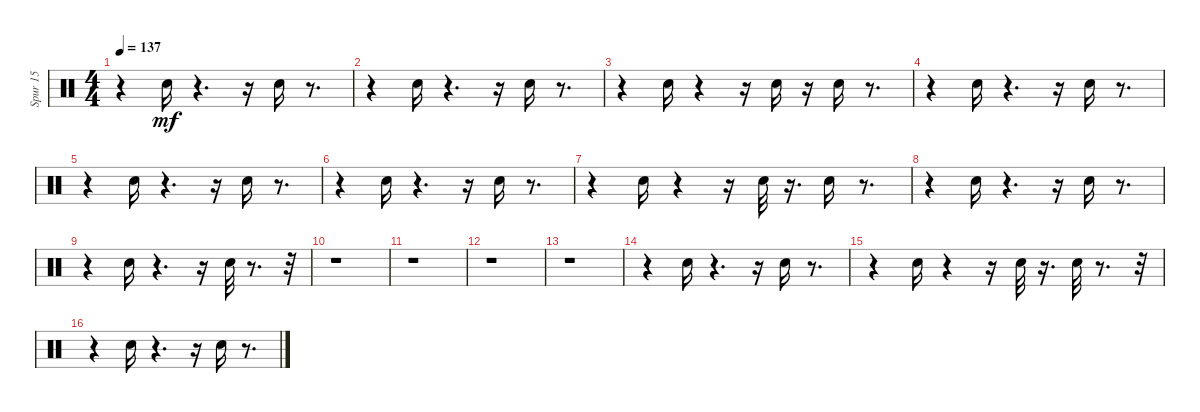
\track ("Spur 15" "Spur 15") {instrument percussion}
\staff {score}
\articulation defaults
\ts (4 4)
\tempo 137
\clef neutral
\ks c
r.4{dy mf} "Hand Clap (hit)".16 r.4{d} r.16 "Hand Clap (hit)".16 r.8{d} |
r.4 "Hand Clap (hit)".16 r.4{d} r.16 "Hand Clap (hit)".16 r.8{d} |
r.4 "Hand Clap (hit)".16 r.4 r.16 "Hand Clap (hit)".16 r.16 "Hand Clap (hit)".16 r.8{d} |
r.4 "Hand Clap (hit)".16 r.4{d} r.16 "Hand Clap (hit)".16 r.8{d} |
r.4 "Hand Clap (hit)".16 r.4{d} r.16 "Hand Clap (hit)".16 r.8{d} |
r.4 "Hand Clap (hit)".16 r.4{d} r.16 "Hand Clap (hit)".16 r.8{d} |
r.4 "Hand Clap (hit)".16 r.4 r.16 "Hand Clap (hit)".32 r.16{d} "Hand Clap (hit)".16 r.8{d} |
r.4 "Hand Clap (hit)".16 r.4{d} r.16 "Hand Clap (hit)".16 r.8{d} |
r.4 "Hand Clap (hit)".16 r.4{d} r.16 "Hand Clap (hit)".32 r.8{d} r.32 |
r.1 |
r.1 |
r.1 |
r.1 |
r.4 "Hand Clap (hit)".16 r.4{d} r.16 "Hand Clap (hit)".16 r.8{d} |
r.4 "Hand Clap (hit)".16 r.4 r.16 "Hand Clap (hit)".32 r.16{d} "Hand Clap (hit)".32 r.8{d} r.32 |
r.4 "Hand Clap (hit)".16 r.4{d} r.16 "Hand Clap (hit)".16 r.8{d}
